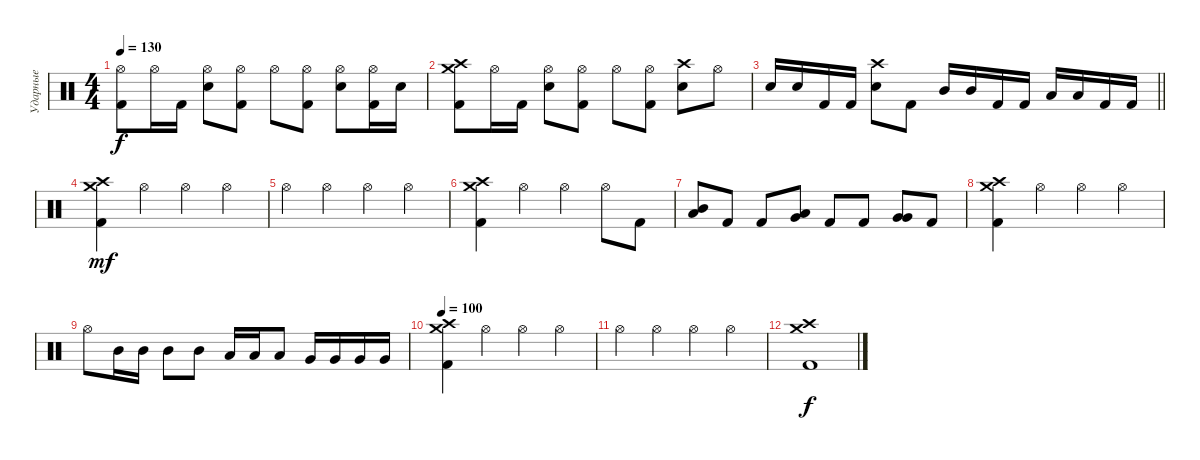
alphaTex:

\track ("Ударные" "Ударные") {instrument percussion}
\staff
\articulation defaults
\ts (4 4)
\tempo 130
\clef neutral
\ks c
("Hi-Hat (open)" "Kick (hit) 2").8{dy f} "Hi-Hat (open)".16 "Kick (hit) 2".16 ("Hi-Hat (open)" "Electric Snare (hit)").8 ("Hi-Hat (open)" "Kick (hit) 2").8 "Hi-Hat (open)".8 ("Hi-Hat (open)" "Kick (hit) 2").8 ("Hi-Hat (open)" "Electric Snare (hit)").8 ("Hi-Hat (open)" "Kick (hit) 2").16 "Electric Snare (hit)".16 |
("Crash high (hit)" "Crash medium (hit)" "Kick (hit) 2").8 "Hi-Hat (open)".16 "Kick (hit) 2".16 ("Hi-Hat (open)" "Electric Snare (hit)").8 ("Hi-Hat (open)" "Kick (hit) 2").8 "Hi-Hat (open)".8 ("Hi-Hat (open)" "Kick (hit) 2").8 ("Crash high (hit)" "Electric Snare (hit)").8 "Hi-Hat (open)".8 |
\barLineRight lightlight "Electric Snare (hit)".16 "Electric Snare (hit)".16 "Kick (hit) 2".16 "Kick (hit) 2".16
("Crash high (hit)" "Electric Snare (hit)").8 "Kick (hit) 2".8 "Mid Tom (hit)".16 "Mid Tom (hit)".16 "Kick (hit) 2".16 "Kick (hit) 2".16 "Low Tom (hit)".16 "Low Tom (hit)".16 "Kick (hit) 2".16 "Kick (hit) 2".16 |
("Crash high (hit)" "Crash medium (hit)" "Kick (hit) 2").4{dy mf} "Hi-Hat (open)".4 "Hi-Hat (open)".4 "Hi-Hat (open)".4 |
"Hi-Hat (open)".4 "Hi-Hat (open)".4 "Hi-Hat (open)".4 "Hi-Hat (open)".4 |
("Crash high (hit)" "Crash medium (hit)" "Kick (hit) 2").4 "Hi-Hat (open)".4 "Hi-Hat (open)".4 "Hi-Hat (open)".8 "Kick (hit) 2".8 |
("Mid Tom (hit)" "Low Tom (hit)").8 "Kick (hit) 2".8 "Kick (hit) 2".8 ("Very Low Tom (hit)" "Low Tom (hit)").8 "Kick (hit) 2".8 "Kick (hit) 2".8 ("Very Low Tom (hit)" "Very Low Tom (hit)").8 "Kick (hit) 2".8 |
("Crash high (hit)" "Crash medium (hit)" "Kick (hit) 2").4 "Hi-Hat (open)".4 "Hi-Hat (open)".4 "Hi-Hat (open)".4 |
"Hi-Hat (open)".8 "Mid Tom (hit)".16 "Mid Tom (hit)".16 "Mid Tom (hit)".8 "Mid Tom (hit)".8 "Low Tom (hit)".16 "Low Tom (hit)".16 "Low Tom (hit)".8 "Very Low Tom (hit)".16 "Very Low Tom (hit)".16 "Very Low Tom (hit)".16 "Very Low Tom (hit)".16 |
\tempo 100
("Crash high (hit)" "Crash medium (hit)" "Kick (hit) 2").4 "Hi-Hat (open)".4 "Hi-Hat (open)".4 "Hi-Hat (open)".4 |
"Hi-Hat (open)".4 "Hi-Hat (open)".4 "Hi-Hat (open)".4 "Hi-Hat (open)".4 |
("Crash high (hit)" "Crash medium (hit)" "Kick (hit) 2").1{dy f}
